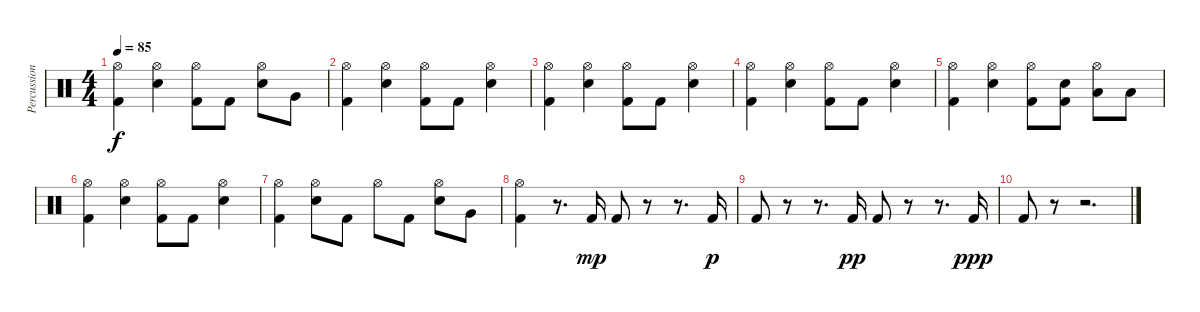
\track ("Percussion" "Percussion") {instrument percussion}
\staff {score}
\articulation defaults
\ts (4 4)
\tempo 85
\clef neutral
\ks c
("Hi-Hat (open)" "Kick (hit) 2").4{dy f} ("Hi-Hat (open)" "Snare (hit) 2").4 ("Hi-Hat (open)" "Kick (hit) 2").8 "Kick (hit) 2".8 ("Hi-Hat (open)" "Snare (hit) 2").8 "Very Low Tom (hit)".8 |
("Hi-Hat (open)" "Kick (hit) 2").4 ("Hi-Hat (open)" "Snare (hit) 2").4 ("Hi-Hat (open)" "Kick (hit) 2").8 "Kick (hit) 2".8 ("Hi-Hat (open)" "Snare (hit) 2").4 |
("Hi-Hat (open)" "Kick (hit) 2").4 ("Hi-Hat (open)" "Snare (hit) 2").4 ("Hi-Hat (open)" "Kick (hit) 2").8 "Kick (hit) 2".8 ("Hi-Hat (open)" "Snare (hit) 2").4 |
("Hi-Hat (open)" "Kick (hit) 2").4 ("Hi-Hat (open)" "Snare (hit) 2").4 ("Hi-Hat (open)" "Kick (hit) 2").8 "Kick (hit) 2".8 ("Hi-Hat (open)" "Snare (hit) 2").4 |
("Hi-Hat (open)" "Kick (hit) 2").4 ("Hi-Hat (open)" "Snare (hit) 2").4 ("Hi-Hat (open)" "Kick (hit) 2").8 ("Snare (hit) 2" "Kick (hit) 2").8 ("Hi-Hat (open)" "Low Tom (hit)").8 "Low Tom (hit)".8 |
("Hi-Hat (open)" "Kick (hit) 2").4 ("Hi-Hat (open)" "Snare (hit) 2").4 ("Hi-Hat (open)" "Kick (hit) 2").8 "Kick (hit) 2".8 ("Hi-Hat (open)" "Snare (hit) 2").4 |
("Hi-Hat (open)" "Kick (hit) 2").4 ("Hi-Hat (open)" "Snare (hit) 2").8 "Kick (hit) 2".8 "Hi-Hat (open)".8 "Kick (hit) 2".8 ("Hi-Hat (open)" "Snare (hit) 2").8 "Very Low Tom (hit)".8 |
("Hi-Hat (open)" "Kick (hit) 2").4 r.8{d} "Kick (hit) 2".16{dy mp} "Kick (hit) 2".8 r.8 r.8{d} "Kick (hit) 2".16{dy p} |
"Kick (hit) 2".8 r.8 r.8{d} "Kick (hit) 2".16{dy pp} "Kick (hit) 2".8 r.8 r.8{d} "Kick (hit) 2".16{dy ppp} |
"Kick (hit) 2".8 r.8 r.2{d}
